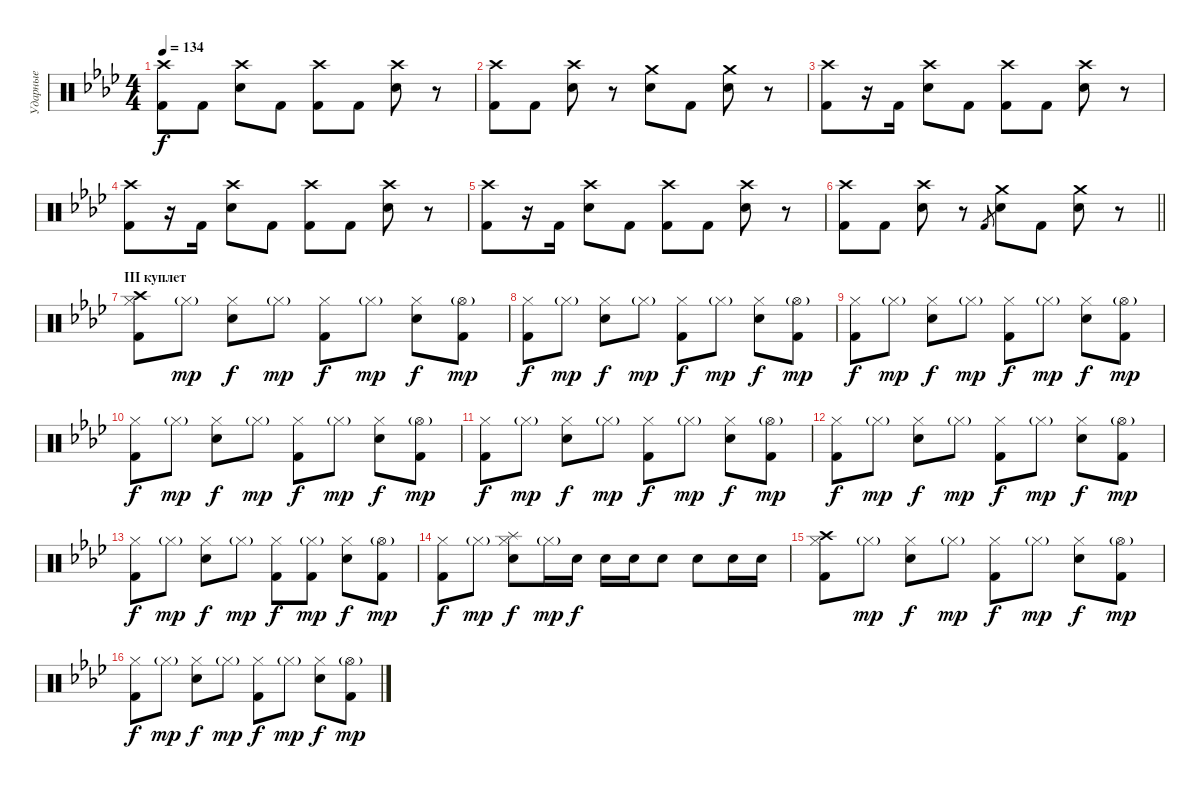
\track ("Ударные" "Ударные") {instrument percussion}
\staff {score}
\articulation defaults
\ts (4 4)
\tempo 134
\clef neutral
\ks fminor
("Crash high (hit)" "Kick (hit) 2").8{dy f} "Kick (hit) 2".8 ("Crash high (hit)" "Electric Snare (hit)").8 "Kick (hit) 2".8 ("Crash high (hit)" "Kick (hit) 2").8 "Kick (hit) 2".8 ("Crash high (hit)" "Electric Snare (hit)").8 r.8 |
("Crash high (hit)" "Kick (hit) 2").8 "Kick (hit) 2".8 ("Crash high (hit)" "Electric Snare (hit)").8 r.8 ("Crash medium (hit)" "Electric Snare (hit)").8 "Kick (hit) 2".8 ("Crash medium (hit)" "Electric Snare (hit)").8 r.8 |
("Crash high (hit)" "Kick (hit) 2").8 r.16 "Kick (hit) 2".16 ("Crash high (hit)" "Electric Snare (hit)").8 "Kick (hit) 2".8 ("Crash high (hit)" "Kick (hit) 2").8 "Kick (hit) 2".8 ("Crash high (hit)" "Electric Snare (hit)").8 r.8 |
("Crash high (hit)" "Kick (hit) 2").8 r.16 "Kick (hit) 2".16 ("Crash high (hit)" "Electric Snare (hit)").8 "Kick (hit) 2".8 ("Crash high (hit)" "Kick (hit) 2").8 "Kick (hit) 2".8 ("Crash high (hit)" "Electric Snare (hit)").8 r.8 |
("Crash high (hit)" "Kick (hit) 2").8 r.16 "Kick (hit) 2".16 ("Crash high (hit)" "Electric Snare (hit)").8 "Kick (hit) 2".8 ("Crash high (hit)" "Kick (hit) 2").8 "Kick (hit) 2".8 ("Crash high (hit)" "Electric Snare (hit)").8 r.8 |
\barLineRight lightlight
("Crash high (hit)" "Kick (hit) 2").8 "Kick (hit) 2".8 ("Crash high (hit)" "Electric Snare (hit)").8 r.8 "Kick (hit) 2".8{gr} ("Crash medium (hit)" "Electric Snare (hit)").8 "Kick (hit) 2".8 ("Crash medium (hit)" "Electric Snare (hit)").8 r.8 |
\section ("" "III куплет")
("Crash high (hit)" "Hi-Hat (closed)" "Kick (hit) 2").8 "Hi-Hat (closed)"{g}.8{dy mp} ("Hi-Hat (closed)" "Electric Snare (hit)").8{dy f} "Hi-Hat (closed)"{g}.8{dy mp} ("Hi-Hat (closed)" "Kick (hit) 2").8{dy f} "Hi-Hat (closed)"{g}.8{dy mp} ("Hi-Hat (closed)" "Electric Snare (hit)").8{dy f} ("Hi-Hat (open)"{g} "Kick (hit) 2").8{dy mp} |
("Hi-Hat (closed)" "Kick (hit) 2").8{dy f} "Hi-Hat (closed)"{g}.8{dy mp} ("Hi-Hat (closed)" "Electric Snare (hit)").8{dy f} "Hi-Hat (closed)"{g}.8{dy mp} ("Hi-Hat (closed)" "Kick (hit) 2").8{dy f} "Hi-Hat (closed)"{g}.8{dy mp} ("Hi-Hat (closed)" "Electric Snare (hit)").8{dy f} ("Hi-Hat (open)"{g} "Kick (hit) 2").8{dy mp} |
("Hi-Hat (closed)" "Kick (hit) 2").8{dy f} "Hi-Hat (closed)"{g}.8{dy mp} ("Hi-Hat (closed)" "Electric Snare (hit)").8{dy f} "Hi-Hat (closed)"{g}.8{dy mp} ("Hi-Hat (closed)" "Kick (hit) 2").8{dy f} "Hi-Hat (closed)"{g}.8{dy mp} ("Hi-Hat (closed)" "Electric Snare (hit)").8{dy f} ("Hi-Hat (open)"{g} "Kick (hit) 2").8{dy mp} |
("Hi-Hat (closed)" "Kick (hit) 2").8{dy f} "Hi-Hat (closed)"{g}.8{dy mp} ("Hi-Hat (closed)" "Electric Snare (hit)").8{dy f} "Hi-Hat (closed)"{g}.8{dy mp} ("Hi-Hat (closed)" "Kick (hit) 2").8{dy f} "Hi-Hat (closed)"{g}.8{dy mp} ("Hi-Hat (closed)" "Electric Snare (hit)").8{dy f} ("Hi-Hat (open)"{g} "Kick (hit) 2").8{dy mp} |
("Hi-Hat (closed)" "Kick (hit) 2").8{dy f} "Hi-Hat (closed)"{g}.8{dy mp} ("Hi-Hat (closed)" "Electric Snare (hit)").8{dy f} "Hi-Hat (closed)"{g}.8{dy mp} ("Hi-Hat (closed)" "Kick (hit) 2").8{dy f} "Hi-Hat (closed)"{g}.8{dy mp} ("Hi-Hat (closed)" "Electric Snare (hit)").8{dy f} ("Hi-Hat (open)"{g} "Kick (hit) 2").8{dy mp} |
("Hi-Hat (closed)" "Kick (hit) 2").8{dy f} "Hi-Hat (closed)"{g}.8{dy mp} ("Hi-Hat (closed)" "Electric Snare (hit)").8{dy f} "Hi-Hat (closed)"{g}.8{dy mp} ("Hi-Hat (closed)" "Kick (hit) 2").8{dy f} "Hi-Hat (closed)"{g}.8{dy mp} ("Hi-Hat (closed)" "Electric Snare (hit)").8{dy f} ("Hi-Hat (open)"{g} "Kick (hit) 2").8{dy mp} |
("Hi-Hat (closed)" "Kick (hit) 2").8{dy f} "Hi-Hat (closed)"{g}.8{dy mp} ("Hi-Hat (closed)" "Electric Snare (hit)").8{dy f} "Hi-Hat (closed)"{g}.8{dy mp} ("Hi-Hat (closed)" "Kick (hit) 2").8{dy f} ("Hi-Hat (closed)"{g} "Kick (hit) 2").8{dy mp} ("Hi-Hat (closed)" "Electric Snare (hit)").8{dy f} ("Hi-Hat (open)"{g} "Kick (hit) 2").8{dy mp} |
("Hi-Hat (closed)" "Kick (hit) 2").8{dy f} "Hi-Hat (closed)"{g}.8{dy mp} ("Splash (hit)" "Hi-Hat (closed)" "Electric Snare (hit)").8{dy f} "Hi-Hat (closed)"{g}.16{dy mp} "Electric Snare (hit)".16{dy f} "Electric Snare (hit)".16 "Electric Snare (hit)".16 "Electric Snare (hit)".8 "Electric Snare (hit)".8 "Electric Snare (hit)".16 "Electric Snare (hit)".16 |
("Crash high (hit)" "Hi-Hat (closed)" "Kick (hit) 2").8 "Hi-Hat (closed)"{g}.8{dy mp} ("Hi-Hat (closed)" "Electric Snare (hit)").8{dy f} "Hi-Hat (closed)"{g}.8{dy mp} ("Hi-Hat (closed)" "Kick (hit) 2").8{dy f} "Hi-Hat (closed)"{g}.8{dy mp} ("Hi-Hat (closed)" "Electric Snare (hit)").8{dy f} ("Hi-Hat (open)"{g} "Kick (hit) 2").8{dy mp} |
("Hi-Hat (closed)" "Kick (hit) 2").8{dy f} "Hi-Hat (closed)"{g}.8{dy mp} ("Hi-Hat (closed)" "Electric Snare (hit)").8{dy f} "Hi-Hat (closed)"{g}.8{dy mp} ("Hi-Hat (closed)" "Kick (hit) 2").8{dy f} "Hi-Hat (closed)"{g}.8{dy mp} ("Hi-Hat (closed)" "Electric Snare (hit)").8{dy f} ("Hi-Hat (open)"{g} "Kick (hit) 2").8{dy mp}
